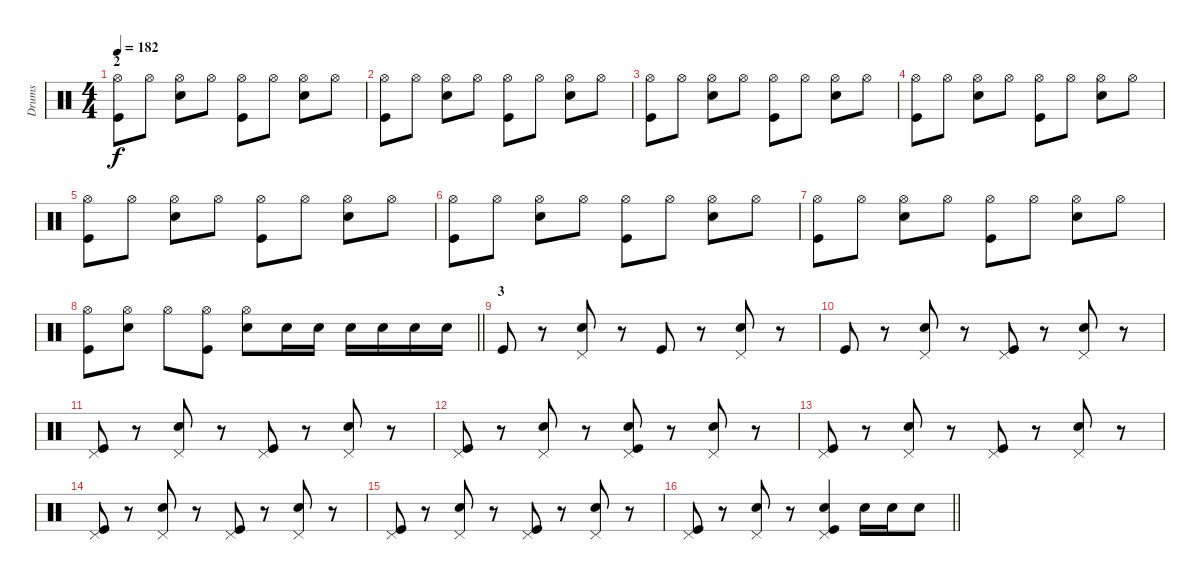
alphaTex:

\track ("Drums" "Drums") {instrument percussion}
\staff {score}
\articulation defaults
\ts (4 4)
\section ("" "2")
\tempo 182
\clef neutral
\ks c
("Hi-Hat (open)" "Kick (hit)").8{dy f} "Hi-Hat (open)".8 ("Hi-Hat (open)" "Electric Snare (hit)").8 "Hi-Hat (open)".8 ("Hi-Hat (open)" "Kick (hit)").8 "Hi-Hat (open)".8 ("Hi-Hat (open)" "Electric Snare (hit)").8 "Hi-Hat (open)".8 |
("Hi-Hat (open)" "Kick (hit)").8 "Hi-Hat (open)".8 ("Hi-Hat (open)" "Electric Snare (hit)").8 "Hi-Hat (open)".8 ("Hi-Hat (open)" "Kick (hit)").8 "Hi-Hat (open)".8 ("Hi-Hat (open)" "Electric Snare (hit)").8 "Hi-Hat (open)".8 |
("Hi-Hat (open)" "Kick (hit)").8 "Hi-Hat (open)".8 ("Hi-Hat (open)" "Electric Snare (hit)").8 "Hi-Hat (open)".8 ("Hi-Hat (open)" "Kick (hit)").8 "Hi-Hat (open)".8 ("Hi-Hat (open)" "Electric Snare (hit)").8 "Hi-Hat (open)".8 |
("Hi-Hat (open)" "Kick (hit)").8 "Hi-Hat (open)".8 ("Hi-Hat (open)" "Electric Snare (hit)").8 "Hi-Hat (open)".8 ("Hi-Hat (open)" "Kick (hit)").8 "Hi-Hat (open)".8 ("Hi-Hat (open)" "Electric Snare (hit)").8 "Hi-Hat (open)".8 |
("Hi-Hat (open)" "Kick (hit)").8 "Hi-Hat (open)".8 ("Hi-Hat (open)" "Electric Snare (hit)").8 "Hi-Hat (open)".8 ("Hi-Hat (open)" "Kick (hit)").8 "Hi-Hat (open)".8 ("Hi-Hat (open)" "Electric Snare (hit)").8 "Hi-Hat (open)".8 |
("Hi-Hat (open)" "Kick (hit)").8 "Hi-Hat (open)".8 ("Hi-Hat (open)" "Electric Snare (hit)").8 "Hi-Hat (open)".8 ("Hi-Hat (open)" "Kick (hit)").8 "Hi-Hat (open)".8 ("Hi-Hat (open)" "Electric Snare (hit)").8 "Hi-Hat (open)".8 |
("Hi-Hat (open)" "Kick (hit)").8 "Hi-Hat (open)".8 ("Hi-Hat (open)" "Electric Snare (hit)").8 "Hi-Hat (open)".8 ("Hi-Hat (open)" "Kick (hit)").8 "Hi-Hat (open)".8 ("Hi-Hat (open)" "Electric Snare (hit)").8 "Hi-Hat (open)".8 |
\barLineRight lightlight
("Hi-Hat (open)" "Kick (hit)").8 ("Hi-Hat (open)" "Electric Snare (hit)").8 "Hi-Hat (open)".8 ("Hi-Hat (open)" "Kick (hit)").8 ("Hi-Hat (open)" "Electric Snare (hit)").8 "Electric Snare (hit)".16 "Electric Snare (hit)".16 "Electric Snare (hit)".16 "Electric Snare (hit)".16 "Electric Snare (hit)".16 "Electric Snare (hit)".16 |
\section ("" "3")
"Kick (hit)".8 r.8 ("Pedal Hi-Hat (hit)" "Electric Snare (hit)").8 r.8 "Kick (hit)".8 r.8 ("Pedal Hi-Hat (hit)" "Electric Snare (hit)").8 r.8 |
"Kick (hit)".8 r.8 ("Pedal Hi-Hat (hit)" "Electric Snare (hit)").8 r.8 ("Pedal Hi-Hat (hit)" "Kick (hit)").8 r.8 ("Pedal Hi-Hat (hit)" "Electric Snare (hit)").8 r.8 |
("Pedal Hi-Hat (hit)" "Kick (hit)").8 r.8 ("Pedal Hi-Hat (hit)" "Electric Snare (hit)").8 r.8 ("Pedal Hi-Hat (hit)" "Kick (hit)").8 r.8 ("Pedal Hi-Hat (hit)" "Electric Snare (hit)").8 r.8 |
("Pedal Hi-Hat (hit)" "Kick (hit)").8 r.8 ("Pedal Hi-Hat (hit)" "Electric Snare (hit)").8 r.8 ("Pedal Hi-Hat (hit)" "Electric Snare (hit)" "Kick (hit)").8 r.8 ("Pedal Hi-Hat (hit)" "Electric Snare (hit)").8 r.8 |
("Pedal Hi-Hat (hit)" "Kick (hit)").8 r.8 ("Pedal Hi-Hat (hit)" "Electric Snare (hit)").8 r.8 ("Pedal Hi-Hat (hit)" "Kick (hit)").8 r.8 ("Pedal Hi-Hat (hit)" "Electric Snare (hit)").8 r.8 |
("Pedal Hi-Hat (hit)" "Kick (hit)").8 r.8 ("Pedal Hi-Hat (hit)" "Electric Snare (hit)").8 r.8 ("Pedal Hi-Hat (hit)" "Kick (hit)").8 r.8 ("Pedal Hi-Hat (hit)" "Electric Snare (hit)").8 r.8 |
("Pedal Hi-Hat (hit)" "Kick (hit)").8 r.8 ("Pedal Hi-Hat (hit)" "Electric Snare (hit)").8 r.8 ("Pedal Hi-Hat (hit)" "Kick (hit)").8 r.8 ("Pedal Hi-Hat (hit)" "Electric Snare (hit)").8 r.8 |
\barLineRight lightlight
("Pedal Hi-Hat (hit)" "Kick (hit)").8 r.8 ("Pedal Hi-Hat (hit)" "Electric Snare (hit)").8 r.8 ("Pedal Hi-Hat (hit)" "Electric Snare (hit)" "Kick (hit)").4 "Electric Snare (hit)".16 "Electric Snare (hit)".16 "Electric Snare (hit)".8
